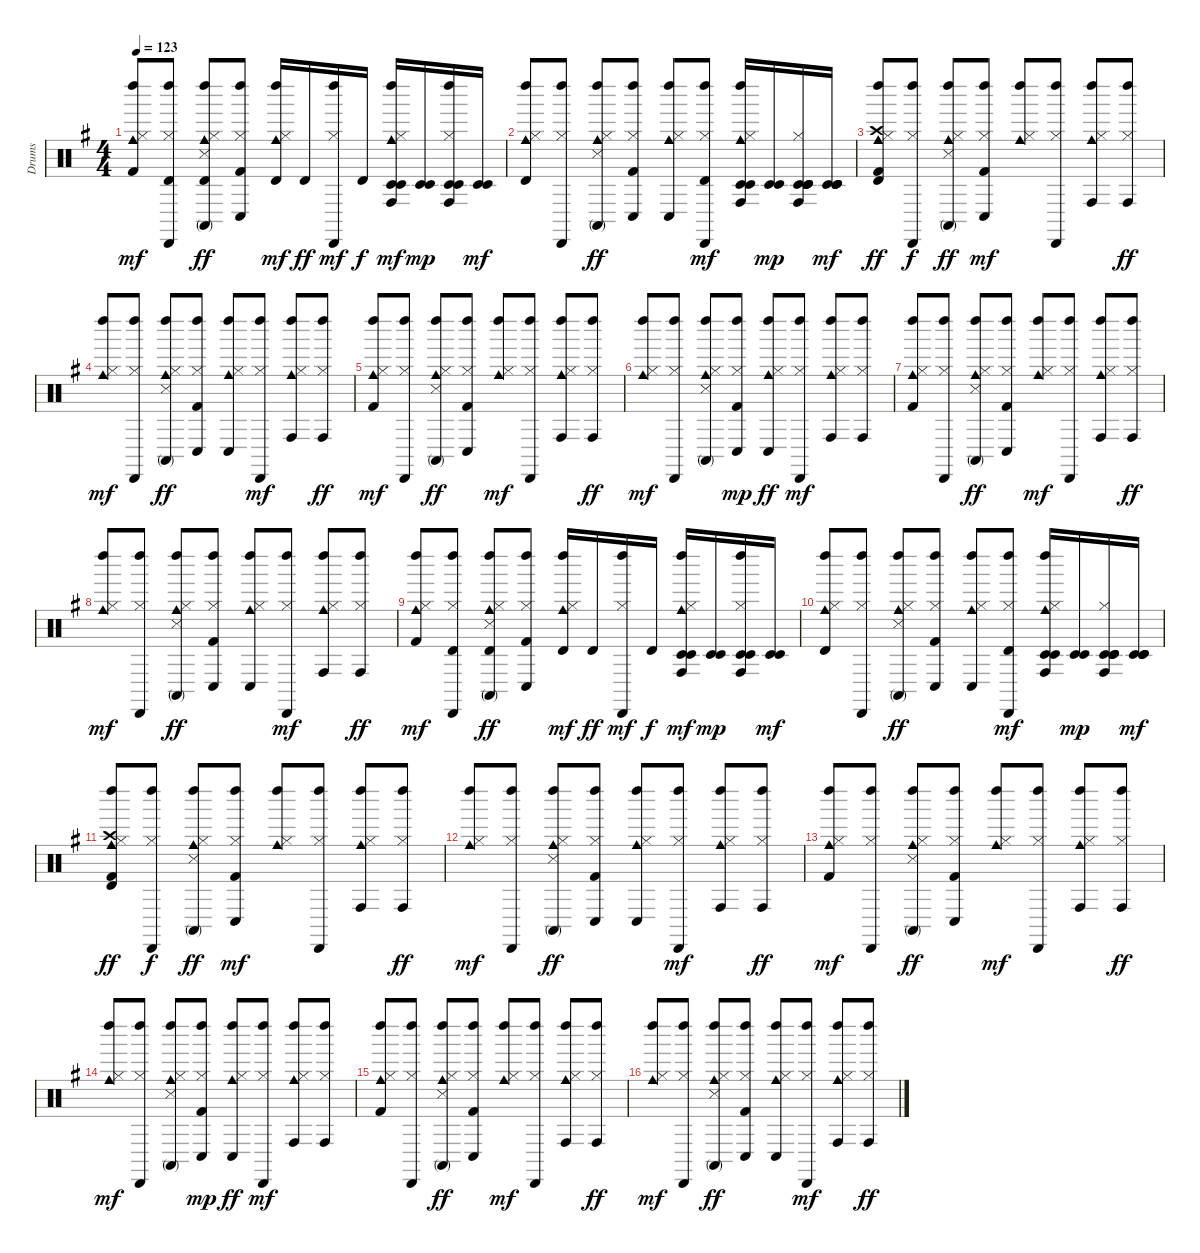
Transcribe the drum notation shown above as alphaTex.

\track ("Drums" "Drums") {instrument percussion}
\staff {score}
\articulation defaults
\ts (4 4)
\tempo 123
\clef neutral
\ks g
("Kick (hit) 2" "Hi-Hat (closed)" "Cowbell medium (hit)" "Left Maraca (hit)").8{dy mf} ("Hi-Hat (closed)" "Timbale high (hit)" "Cabasa (hit)" "Left Maraca (hit)").8 ("Snare (side stick) 3" "Hi-Hat (closed)" "Cowbell medium (hit)" "Conga high (mute)" "Timbale high (hit)" "Left Maraca (hit)").8{dy ff} ("Kick (hit) 2" "Hi-Hat (closed)" "Conga low (hit)" "Left Maraca (hit)").8 ("Hi-Hat (closed)" "Cowbell medium (hit)" "Timbale high (hit)" "Left Maraca (hit)").16{dy mf} "Timbale high (hit)".16{dy ff} ("Hi-Hat (closed)" "Cabasa (hit)" "Left Maraca (hit)").16{dy mf} "Timbale high (hit)".16{dy f} ("Hi-Hat (closed)" "Cowbell medium (hit)" "Conga high (hit)" "Timbale low (hit)" "Timbale low (hit)" "Left Maraca (hit)").16{dy mf} ("Timbale low (hit)" "Timbale low (hit)").16{dy mp} ("Hi-Hat (closed)" "Conga high (hit)" "Timbale low (hit)" "Timbale low (hit)" "Left Maraca (hit)").16 ("Timbale low (hit)" "Timbale low (hit)").16{dy mf} |
("Hi-Hat (closed)" "Cowbell medium (hit)" "Timbale high (hit)" "Left Maraca (hit)").8 ("Hi-Hat (closed)" "Cabasa (hit)" "Left Maraca (hit)").8 ("Snare (side stick) 3" "Hi-Hat (closed)" "Cowbell medium (hit)" "Conga high (mute)" "Left Maraca (hit)").8{dy ff} ("Kick (hit) 2" "Hi-Hat (closed)" "Conga low (hit)" "Left Maraca (hit)").8 ("Hi-Hat (closed)" "Cowbell medium (hit)" "Conga low (hit)" "Left Maraca (hit)").8 ("Hi-Hat (closed)" "Timbale high (hit)" "Cabasa (hit)" "Left Maraca (hit)").8{dy mf} ("Hi-Hat (closed)" "Cowbell medium (hit)" "Conga high (hit)" "Timbale low (hit)" "Timbale low (hit)" "Left Maraca (hit)").16 ("Timbale low (hit)" "Timbale low (hit)").16{dy mp} ("Hi-Hat (closed)" "Conga high (hit)" "Timbale low (hit)" "Timbale low (hit)" "Timbale low (hit)" "Timbale low (hit)").16 ("Timbale low (hit)" "Timbale low (hit)" "Timbale low (hit)" "Timbale low (hit)").16{dy mf} |
("Kick (hit) 2" "Hi-Hat (closed)" "Crash high (hit)" "Cowbell medium (hit)" "Timbale high (hit)" "Left Maraca (hit)").8{dy ff} ("Hi-Hat (closed)" "Cabasa (hit)" "Left Maraca (hit)").8{dy f} ("Snare (side stick) 3" "Hi-Hat (closed)" "Cowbell medium (hit)" "Conga high (mute)" "Left Maraca (hit)").8{dy ff} ("Kick (hit) 2" "Hi-Hat (closed)" "Conga low (hit)" "Left Maraca (hit)").8{dy mf} ("Hi-Hat (closed)" "Cowbell medium (hit)" "Left Maraca (hit)").8 ("Hi-Hat (closed)" "Cabasa (hit)" "Left Maraca (hit)").8 ("Hi-Hat (closed)" "Cowbell medium (hit)" "Conga high (hit)" "Left Maraca (hit)").8 ("Hi-Hat (closed)" "Conga high (hit)" "Left Maraca (hit)").8{dy ff} |
("Hi-Hat (closed)" "Cowbell medium (hit)" "Left Maraca (hit)").8{dy mf} ("Hi-Hat (closed)" "Cabasa (hit)" "Left Maraca (hit)").8 ("Snare (side stick) 3" "Hi-Hat (closed)" "Cowbell medium (hit)" "Conga high (mute)" "Left Maraca (hit)").8{dy ff} ("Kick (hit) 2" "Hi-Hat (closed)" "Conga low (hit)" "Left Maraca (hit)").8 ("Hi-Hat (closed)" "Cowbell medium (hit)" "Conga low (hit)" "Left Maraca (hit)").8 ("Hi-Hat (closed)" "Cabasa (hit)" "Left Maraca (hit)").8{dy mf} ("Hi-Hat (closed)" "Cowbell medium (hit)" "Conga high (hit)" "Left Maraca (hit)").8 ("Hi-Hat (closed)" "Conga high (hit)" "Left Maraca (hit)").8{dy ff} |
("Kick (hit) 2" "Hi-Hat (closed)" "Cowbell medium (hit)" "Left Maraca (hit)").8{dy mf} ("Hi-Hat (closed)" "Cabasa (hit)" "Left Maraca (hit)").8 ("Snare (side stick) 3" "Hi-Hat (closed)" "Cowbell medium (hit)" "Conga high (mute)" "Left Maraca (hit)").8{dy ff} ("Kick (hit) 2" "Hi-Hat (closed)" "Conga low (hit)" "Left Maraca (hit)").8 ("Hi-Hat (closed)" "Cowbell medium (hit)" "Left Maraca (hit)").8{dy mf} ("Hi-Hat (closed)" "Cabasa (hit)" "Left Maraca (hit)").8 ("Hi-Hat (closed)" "Cowbell medium (hit)" "Conga high (hit)" "Left Maraca (hit)").8 ("Hi-Hat (closed)" "Conga high (hit)" "Left Maraca (hit)").8{dy ff} |
("Hi-Hat (closed)" "Cowbell medium (hit)" "Left Maraca (hit)").8{dy mf} ("Hi-Hat (closed)" "Cabasa (hit)" "Left Maraca (hit)").8 ("Snare (side stick) 3" "Hi-Hat (closed)" "Cowbell medium (hit)" "Conga high (mute)" "Left Maraca (hit)").8 ("Kick (hit) 2" "Hi-Hat (closed)" "Conga low (hit)" "Left Maraca (hit)").8{dy mp} ("Hi-Hat (closed)" "Cowbell medium (hit)" "Conga low (hit)" "Left Maraca (hit)").8{dy ff} ("Hi-Hat (closed)" "Cabasa (hit)" "Left Maraca (hit)").8{dy mf} ("Hi-Hat (closed)" "Cowbell medium (hit)" "Conga high (hit)" "Left Maraca (hit)").8 ("Hi-Hat (closed)" "Conga high (hit)" "Left Maraca (hit)").8 |
("Kick (hit) 2" "Hi-Hat (closed)" "Cowbell medium (hit)" "Left Maraca (hit)").8 ("Hi-Hat (closed)" "Cabasa (hit)" "Left Maraca (hit)").8 ("Snare (side stick) 3" "Hi-Hat (closed)" "Cowbell medium (hit)" "Conga high (mute)" "Left Maraca (hit)").8{dy ff} ("Kick (hit) 2" "Hi-Hat (closed)" "Conga low (hit)" "Left Maraca (hit)").8 ("Hi-Hat (closed)" "Cowbell medium (hit)" "Left Maraca (hit)").8{dy mf} ("Hi-Hat (closed)" "Cabasa (hit)" "Left Maraca (hit)").8 ("Hi-Hat (closed)" "Cowbell medium (hit)" "Conga high (hit)" "Left Maraca (hit)").8 ("Hi-Hat (closed)" "Conga high (hit)" "Left Maraca (hit)").8{dy ff} |
("Hi-Hat (closed)" "Cowbell medium (hit)" "Left Maraca (hit)").8{dy mf} ("Hi-Hat (closed)" "Cabasa (hit)" "Left Maraca (hit)").8 ("Snare (side stick) 3" "Hi-Hat (closed)" "Cowbell medium (hit)" "Conga high (mute)" "Left Maraca (hit)").8{dy ff} ("Kick (hit) 2" "Hi-Hat (closed)" "Conga low (hit)" "Left Maraca (hit)").8 ("Hi-Hat (closed)" "Cowbell medium (hit)" "Conga low (hit)" "Left Maraca (hit)").8 ("Hi-Hat (closed)" "Cabasa (hit)" "Left Maraca (hit)").8{dy mf} ("Hi-Hat (closed)" "Cowbell medium (hit)" "Conga high (hit)" "Left Maraca (hit)").8 ("Hi-Hat (closed)" "Conga high (hit)" "Left Maraca (hit)").8{dy ff} |
("Kick (hit) 2" "Hi-Hat (closed)" "Cowbell medium (hit)" "Left Maraca (hit)").8{dy mf} ("Hi-Hat (closed)" "Timbale high (hit)" "Cabasa (hit)" "Left Maraca (hit)").8 ("Snare (side stick) 3" "Hi-Hat (closed)" "Cowbell medium (hit)" "Conga high (mute)" "Timbale high (hit)" "Left Maraca (hit)").8{dy ff} ("Kick (hit) 2" "Hi-Hat (closed)" "Conga low (hit)" "Left Maraca (hit)").8 ("Hi-Hat (closed)" "Cowbell medium (hit)" "Timbale high (hit)" "Left Maraca (hit)").16{dy mf} "Timbale high (hit)".16{dy ff} ("Hi-Hat (closed)" "Cabasa (hit)" "Left Maraca (hit)").16{dy mf} "Timbale high (hit)".16{dy f} ("Hi-Hat (closed)" "Cowbell medium (hit)" "Conga high (hit)" "Timbale low (hit)" "Timbale low (hit)" "Left Maraca (hit)").16{dy mf} ("Timbale low (hit)" "Timbale low (hit)").16{dy mp} ("Hi-Hat (closed)" "Conga high (hit)" "Timbale low (hit)" "Timbale low (hit)" "Left Maraca (hit)").16 ("Timbale low (hit)" "Timbale low (hit)").16{dy mf} |
("Hi-Hat (closed)" "Cowbell medium (hit)" "Timbale high (hit)" "Left Maraca (hit)").8 ("Hi-Hat (closed)" "Cabasa (hit)" "Left Maraca (hit)").8 ("Snare (side stick) 3" "Hi-Hat (closed)" "Cowbell medium (hit)" "Conga high (mute)" "Left Maraca (hit)").8{dy ff} ("Kick (hit) 2" "Hi-Hat (closed)" "Conga low (hit)" "Left Maraca (hit)").8 ("Hi-Hat (closed)" "Cowbell medium (hit)" "Conga low (hit)" "Left Maraca (hit)").8 ("Hi-Hat (closed)" "Timbale high (hit)" "Cabasa (hit)" "Left Maraca (hit)").8{dy mf} ("Hi-Hat (closed)" "Cowbell medium (hit)" "Conga high (hit)" "Timbale low (hit)" "Timbale low (hit)" "Left Maraca (hit)").16 ("Timbale low (hit)" "Timbale low (hit)").16{dy mp} ("Hi-Hat (closed)" "Conga high (hit)" "Timbale low (hit)" "Timbale low (hit)" "Timbale low (hit)" "Timbale low (hit)").16 ("Timbale low (hit)" "Timbale low (hit)" "Timbale low (hit)" "Timbale low (hit)").16{dy mf} |
("Kick (hit) 2" "Hi-Hat (closed)" "Crash high (hit)" "Cowbell medium (hit)" "Timbale high (hit)" "Left Maraca (hit)").8{dy ff} ("Hi-Hat (closed)" "Cabasa (hit)" "Left Maraca (hit)").8{dy f} ("Snare (side stick) 3" "Hi-Hat (closed)" "Cowbell medium (hit)" "Conga high (mute)" "Left Maraca (hit)").8{dy ff} ("Kick (hit) 2" "Hi-Hat (closed)" "Conga low (hit)" "Left Maraca (hit)").8{dy mf} ("Hi-Hat (closed)" "Cowbell medium (hit)" "Left Maraca (hit)").8 ("Hi-Hat (closed)" "Cabasa (hit)" "Left Maraca (hit)").8 ("Hi-Hat (closed)" "Cowbell medium (hit)" "Conga high (hit)" "Left Maraca (hit)").8 ("Hi-Hat (closed)" "Conga high (hit)" "Left Maraca (hit)").8{dy ff} |
("Hi-Hat (closed)" "Cowbell medium (hit)" "Left Maraca (hit)").8{dy mf} ("Hi-Hat (closed)" "Cabasa (hit)" "Left Maraca (hit)").8 ("Snare (side stick) 3" "Hi-Hat (closed)" "Cowbell medium (hit)" "Conga high (mute)" "Left Maraca (hit)").8{dy ff} ("Kick (hit) 2" "Hi-Hat (closed)" "Conga low (hit)" "Left Maraca (hit)").8 ("Hi-Hat (closed)" "Cowbell medium (hit)" "Conga low (hit)" "Left Maraca (hit)").8 ("Hi-Hat (closed)" "Cabasa (hit)" "Left Maraca (hit)").8{dy mf} ("Hi-Hat (closed)" "Cowbell medium (hit)" "Conga high (hit)" "Left Maraca (hit)").8 ("Hi-Hat (closed)" "Conga high (hit)" "Left Maraca (hit)").8{dy ff} |
("Kick (hit) 2" "Hi-Hat (closed)" "Cowbell medium (hit)" "Left Maraca (hit)").8{dy mf} ("Hi-Hat (closed)" "Cabasa (hit)" "Left Maraca (hit)").8 ("Snare (side stick) 3" "Hi-Hat (closed)" "Cowbell medium (hit)" "Conga high (mute)" "Left Maraca (hit)").8{dy ff} ("Kick (hit) 2" "Hi-Hat (closed)" "Conga low (hit)" "Left Maraca (hit)").8 ("Hi-Hat (closed)" "Cowbell medium (hit)" "Left Maraca (hit)").8{dy mf} ("Hi-Hat (closed)" "Cabasa (hit)" "Left Maraca (hit)").8 ("Hi-Hat (closed)" "Cowbell medium (hit)" "Conga high (hit)" "Left Maraca (hit)").8 ("Hi-Hat (closed)" "Conga high (hit)" "Left Maraca (hit)").8{dy ff} |
("Hi-Hat (closed)" "Cowbell medium (hit)" "Left Maraca (hit)").8{dy mf} ("Hi-Hat (closed)" "Cabasa (hit)" "Left Maraca (hit)").8 ("Snare (side stick) 3" "Hi-Hat (closed)" "Cowbell medium (hit)" "Conga high (mute)" "Left Maraca (hit)").8 ("Kick (hit) 2" "Hi-Hat (closed)" "Conga low (hit)" "Left Maraca (hit)").8{dy mp} ("Hi-Hat (closed)" "Cowbell medium (hit)" "Conga low (hit)" "Left Maraca (hit)").8{dy ff} ("Hi-Hat (closed)" "Cabasa (hit)" "Left Maraca (hit)").8{dy mf} ("Hi-Hat (closed)" "Cowbell medium (hit)" "Conga high (hit)" "Left Maraca (hit)").8 ("Hi-Hat (closed)" "Conga high (hit)" "Left Maraca (hit)").8 |
("Kick (hit) 2" "Hi-Hat (closed)" "Cowbell medium (hit)" "Left Maraca (hit)").8 ("Hi-Hat (closed)" "Cabasa (hit)" "Left Maraca (hit)").8 ("Snare (side stick) 3" "Hi-Hat (closed)" "Cowbell medium (hit)" "Conga high (mute)" "Left Maraca (hit)").8{dy ff} ("Kick (hit) 2" "Hi-Hat (closed)" "Conga low (hit)" "Left Maraca (hit)").8 ("Hi-Hat (closed)" "Cowbell medium (hit)" "Left Maraca (hit)").8{dy mf} ("Hi-Hat (closed)" "Cabasa (hit)" "Left Maraca (hit)").8 ("Hi-Hat (closed)" "Cowbell medium (hit)" "Conga high (hit)" "Left Maraca (hit)").8 ("Hi-Hat (closed)" "Conga high (hit)" "Left Maraca (hit)").8{dy ff} |
("Hi-Hat (closed)" "Cowbell medium (hit)" "Left Maraca (hit)").8{dy mf} ("Hi-Hat (closed)" "Cabasa (hit)" "Left Maraca (hit)").8 ("Snare (side stick) 3" "Hi-Hat (closed)" "Cowbell medium (hit)" "Conga high (mute)" "Left Maraca (hit)").8{dy ff} ("Kick (hit) 2" "Hi-Hat (closed)" "Conga low (hit)" "Left Maraca (hit)").8 ("Hi-Hat (closed)" "Cowbell medium (hit)" "Conga low (hit)" "Left Maraca (hit)").8 ("Hi-Hat (closed)" "Cabasa (hit)" "Left Maraca (hit)").8{dy mf} ("Hi-Hat (closed)" "Cowbell medium (hit)" "Conga high (hit)" "Left Maraca (hit)").8 ("Hi-Hat (closed)" "Conga high (hit)" "Left Maraca (hit)").8{dy ff}
